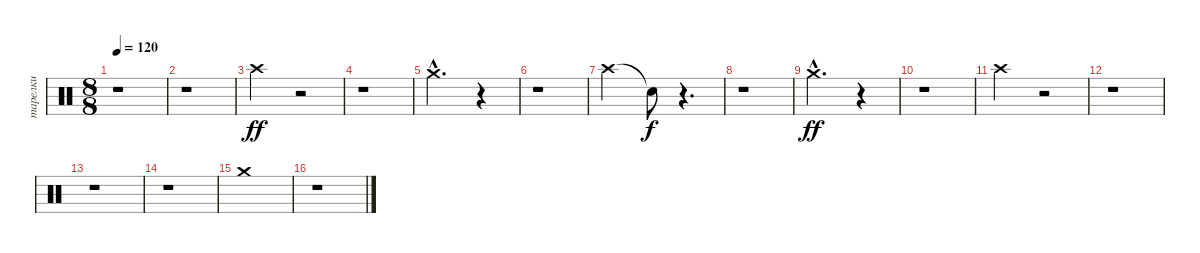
\track ("тарелки" "тарелки") {instrument percussion}
\staff {score}
\articulation defaults
\ts (8 8)
\tempo 120
\clef neutral
\ks c
r.1{dy ff} |
r.1 |
"Crash high (hit)".2 r.2 |
r.1 |
"Crash medium (hit)"{hac}.2{d} r.4 |
r.1 |
"Crash high (hit)".2 "Snare (hit)"{t}.8{dy f} r.4{d} |
r.1 |
"Crash medium (hit)"{hac}.2{d dy ff} r.4 |
r.1 |
"Crash high (hit)".2 r.2 |
r.1 |
r.1 |
r.1 |
"Crash medium (hit)".1 |
r.1
